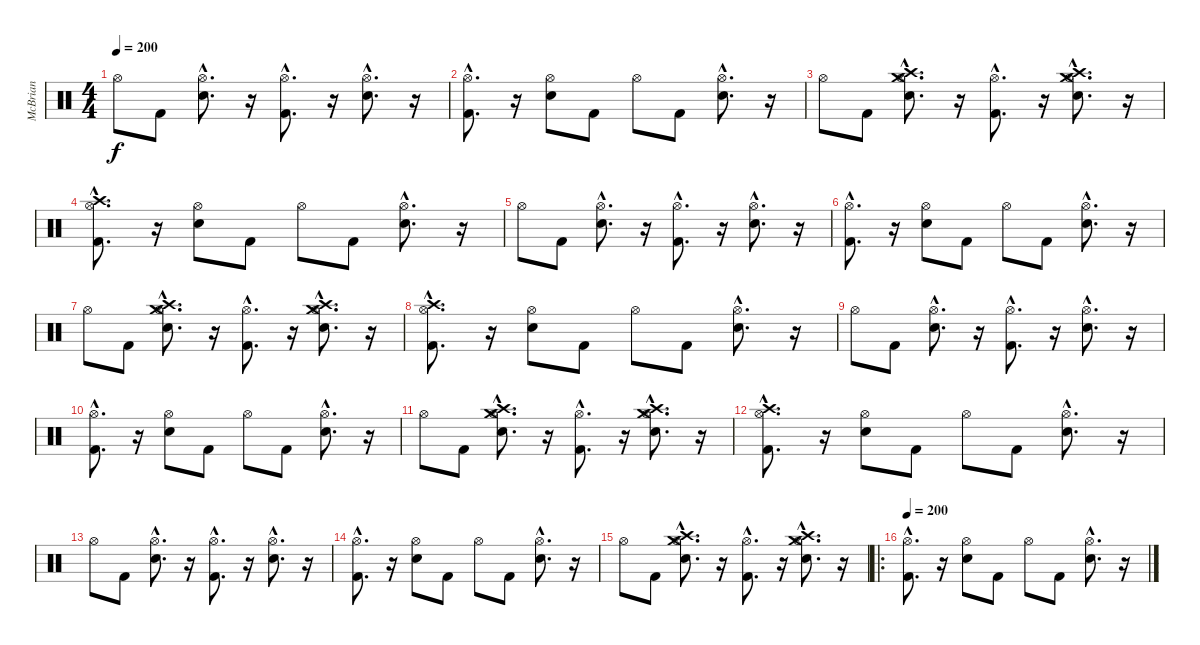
\track ("McBrian" "McBrian") {instrument percussion}
\staff {score}
\articulation defaults
\ts (4 4)
\tempo 200
\clef neutral
\ks c "Hi-Hat (open)".8{dy f} "Kick (hit) 2".8
("Hi-Hat (open)"{hac} "Snare (hit) 2"{hac}).8{d} r.16 ("Hi-Hat (open)"{hac} "Kick (hit) 2"{hac}).8{d} r.16 ("Snare (hit) 2"{hac} "Hi-Hat (open)"{hac}).8{d} r.16 |
("Hi-Hat (open)"{hac} "Kick (hit) 2"{hac}).8{d} r.16 ("Snare (hit) 2" "Hi-Hat (open)").8 "Kick (hit) 2".8 "Hi-Hat (open)".8 "Kick (hit) 2".8 ("Hi-Hat (open)"{hac} "Snare (hit) 2"{hac}).8{d} r.16 |
"Hi-Hat (open)".8 "Kick (hit) 2".8 ("Crash medium (hit)"{hac} "Snare (hit) 2"{hac} "Hi-Hat (open)"{hac} "Crash high (hit)"{hac}).8{d} r.16 ("Hi-Hat (open)"{hac} "Kick (hit) 2"{hac}).8{d} r.16 ("Snare (hit) 2"{hac} "Hi-Hat (open)"{hac} "Crash high (hit)"{hac} "Crash medium (hit)"{hac}).8{d} r.16 |
("Hi-Hat (open)"{hac} "Crash high (hit)"{hac} "Kick (hit) 2"{hac}).8{d} r.16 ("Snare (hit) 2" "Hi-Hat (open)").8 "Kick (hit) 2".8 "Hi-Hat (open)".8 "Kick (hit) 2".8 ("Hi-Hat (open)"{hac} "Snare (hit) 2"{hac}).8{d} r.16 |
"Hi-Hat (open)".8 "Kick (hit) 2".8 ("Hi-Hat (open)"{hac} "Snare (hit) 2"{hac}).8{d} r.16 ("Hi-Hat (open)"{hac} "Kick (hit) 2"{hac}).8{d} r.16 ("Snare (hit) 2"{hac} "Hi-Hat (open)"{hac}).8{d} r.16 |
("Hi-Hat (open)"{hac} "Kick (hit) 2"{hac}).8{d} r.16 ("Snare (hit) 2" "Hi-Hat (open)").8 "Kick (hit) 2".8 "Hi-Hat (open)".8 "Kick (hit) 2".8 ("Hi-Hat (open)"{hac} "Snare (hit) 2"{hac}).8{d} r.16 |
"Hi-Hat (open)".8 "Kick (hit) 2".8 ("Crash medium (hit)"{hac} "Snare (hit) 2"{hac} "Hi-Hat (open)"{hac} "Crash high (hit)"{hac}).8{d} r.16 ("Hi-Hat (open)"{hac} "Kick (hit) 2"{hac}).8{d} r.16 ("Snare (hit) 2"{hac} "Hi-Hat (open)"{hac} "Crash high (hit)"{hac} "Crash medium (hit)"{hac}).8{d} r.16 |
("Hi-Hat (open)"{hac} "Crash high (hit)"{hac} "Kick (hit) 2"{hac}).8{d} r.16 ("Snare (hit) 2" "Hi-Hat (open)").8 "Kick (hit) 2".8 "Hi-Hat (open)".8 "Kick (hit) 2".8 ("Hi-Hat (open)"{hac} "Snare (hit) 2"{hac}).8{d} r.16 |
"Hi-Hat (open)".8 "Kick (hit) 2".8 ("Hi-Hat (open)"{hac} "Snare (hit) 2"{hac}).8{d} r.16 ("Hi-Hat (open)"{hac} "Kick (hit) 2"{hac}).8{d} r.16 ("Snare (hit) 2"{hac} "Hi-Hat (open)"{hac}).8{d} r.16 |
("Hi-Hat (open)"{hac} "Kick (hit) 2"{hac}).8{d} r.16 ("Snare (hit) 2" "Hi-Hat (open)").8 "Kick (hit) 2".8 "Hi-Hat (open)".8 "Kick (hit) 2".8 ("Hi-Hat (open)"{hac} "Snare (hit) 2"{hac}).8{d} r.16 |
"Hi-Hat (open)".8 "Kick (hit) 2".8 ("Crash medium (hit)"{hac} "Snare (hit) 2"{hac} "Hi-Hat (open)"{hac} "Crash high (hit)"{hac}).8{d} r.16 ("Hi-Hat (open)"{hac} "Kick (hit) 2"{hac}).8{d} r.16 ("Snare (hit) 2"{hac} "Hi-Hat (open)"{hac} "Crash high (hit)"{hac} "Crash medium (hit)"{hac}).8{d} r.16 |
("Hi-Hat (open)"{hac} "Crash high (hit)"{hac} "Kick (hit) 2"{hac}).8{d} r.16 ("Snare (hit) 2" "Hi-Hat (open)").8 "Kick (hit) 2".8 "Hi-Hat (open)".8 "Kick (hit) 2".8 ("Hi-Hat (open)"{hac} "Snare (hit) 2"{hac}).8{d} r.16 |
"Hi-Hat (open)".8 "Kick (hit) 2".8 ("Hi-Hat (open)"{hac} "Snare (hit) 2"{hac}).8{d} r.16 ("Hi-Hat (open)"{hac} "Kick (hit) 2"{hac}).8{d} r.16 ("Snare (hit) 2"{hac} "Hi-Hat (open)"{hac}).8{d} r.16 |
("Hi-Hat (open)"{hac} "Kick (hit) 2"{hac}).8{d} r.16 ("Snare (hit) 2" "Hi-Hat (open)").8 "Kick (hit) 2".8 "Hi-Hat (open)".8 "Kick (hit) 2".8 ("Hi-Hat (open)"{hac} "Snare (hit) 2"{hac}).8{d} r.16 |
"Hi-Hat (open)".8 "Kick (hit) 2".8 ("Crash medium (hit)"{hac} "Snare (hit) 2"{hac} "Hi-Hat (open)"{hac} "Crash high (hit)"{hac}).8{d} r.16 ("Hi-Hat (open)"{hac} "Kick (hit) 2"{hac}).8{d} r.16 ("Snare (hit) 2"{hac} "Hi-Hat (open)"{hac} "Crash high (hit)"{hac} "Crash medium (hit)"{hac}).8{d} r.16 |
\ro
\tempo 200
("Hi-Hat (open)"{hac} "Kick (hit) 2"{hac}).8{d} r.16 ("Snare (hit) 2" "Hi-Hat (open)").8 "Kick (hit) 2".8 "Hi-Hat (open)".8 "Kick (hit) 2".8 ("Hi-Hat (open)"{hac} "Snare (hit) 2"{hac}).8{d} r.16
